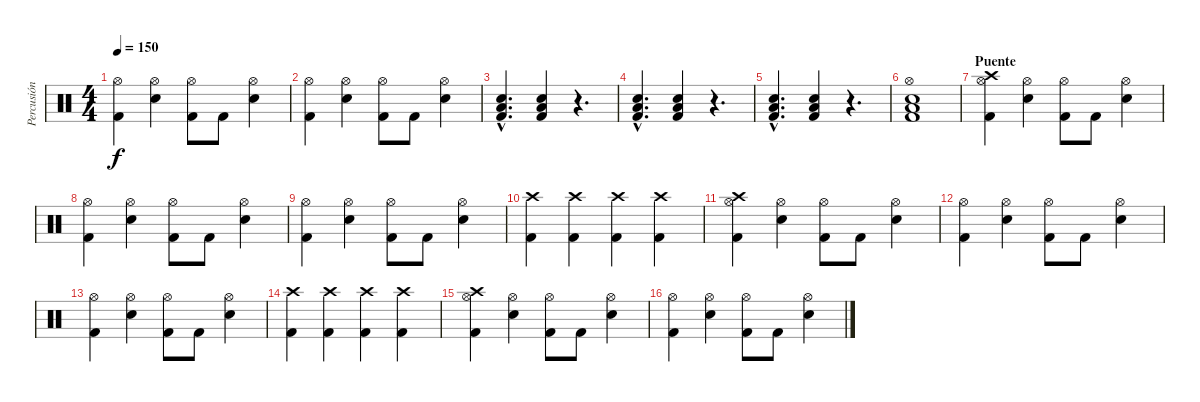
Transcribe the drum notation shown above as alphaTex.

\track ("Percusión" "Percusión") {instrument percussion}
\staff {score}
\articulation defaults
\ts (4 4)
\tempo 150
\clef neutral
\ks c
("Hi-Hat (open)" "Kick (hit) 2").4{dy f} ("Hi-Hat (open)" "Snare (hit) 2").4 ("Hi-Hat (open)" "Kick (hit) 2").8 "Kick (hit) 2".8 ("Hi-Hat (open)" "Snare (hit) 2").4 |
("Hi-Hat (open)" "Kick (hit) 2").4 ("Hi-Hat (open)" "Snare (hit) 2").4 ("Hi-Hat (open)" "Kick (hit) 2").8 "Kick (hit) 2".8 ("Hi-Hat (open)" "Snare (hit) 2").4 |
("Snare (hit) 2"{hac} "Low Floor Tom (hit)"{hac} "Kick (hit) 2"{hac}).4{d} ("Snare (hit) 2" "Low Floor Tom (hit)" "Kick (hit) 2").4 r.4{d} |
("Snare (hit) 2"{hac} "Low Floor Tom (hit)"{hac} "Kick (hit) 2"{hac}).4{d} ("Snare (hit) 2" "Low Floor Tom (hit)" "Kick (hit) 2").4 r.4{d} |
("Snare (hit) 2"{hac} "Low Floor Tom (hit)"{hac} "Kick (hit) 2"{hac}).4{d} ("Snare (hit) 2" "Low Floor Tom (hit)" "Kick (hit) 2").4 r.4{d} |
("Hi-Hat (open)" "Snare (hit) 2" "Low Floor Tom (hit)" "Kick (hit) 2").1 |
\section ("" "Puente")
("Crash high (hit)" "Hi-Hat (open)" "Kick (hit) 2").4 ("Hi-Hat (open)" "Snare (hit) 2").4 ("Hi-Hat (open)" "Kick (hit) 2").8 "Kick (hit) 2".8 ("Hi-Hat (open)" "Snare (hit) 2").4 |
("Hi-Hat (open)" "Kick (hit) 2").4 ("Hi-Hat (open)" "Snare (hit) 2").4 ("Hi-Hat (open)" "Kick (hit) 2").8 "Kick (hit) 2".8 ("Hi-Hat (open)" "Snare (hit) 2").4 |
("Hi-Hat (open)" "Kick (hit) 2").4 ("Hi-Hat (open)" "Snare (hit) 2").4 ("Hi-Hat (open)" "Kick (hit) 2").8 "Kick (hit) 2".8 ("Hi-Hat (open)" "Snare (hit) 2").4 |
("Crash high (hit)" "Kick (hit) 2").4 ("Crash high (hit)" "Kick (hit) 2").4 ("Crash high (hit)" "Kick (hit) 2").4 ("Crash high (hit)" "Kick (hit) 2").4 |
("Crash high (hit)" "Hi-Hat (open)" "Kick (hit) 2").4 ("Hi-Hat (open)" "Snare (hit) 2").4 ("Hi-Hat (open)" "Kick (hit) 2").8 "Kick (hit) 2".8 ("Hi-Hat (open)" "Snare (hit) 2").4 |
("Hi-Hat (open)" "Kick (hit) 2").4 ("Hi-Hat (open)" "Snare (hit) 2").4 ("Hi-Hat (open)" "Kick (hit) 2").8 "Kick (hit) 2".8 ("Hi-Hat (open)" "Snare (hit) 2").4 |
("Hi-Hat (open)" "Kick (hit) 2").4 ("Hi-Hat (open)" "Snare (hit) 2").4 ("Hi-Hat (open)" "Kick (hit) 2").8 "Kick (hit) 2".8 ("Hi-Hat (open)" "Snare (hit) 2").4 |
("Crash high (hit)" "Kick (hit) 2").4 ("Crash high (hit)" "Kick (hit) 2").4 ("Crash high (hit)" "Kick (hit) 2").4 ("Crash high (hit)" "Kick (hit) 2").4 |
("Crash high (hit)" "Hi-Hat (open)" "Kick (hit) 2").4 ("Hi-Hat (open)" "Snare (hit) 2").4 ("Hi-Hat (open)" "Kick (hit) 2").8 "Kick (hit) 2".8 ("Hi-Hat (open)" "Snare (hit) 2").4 |
("Hi-Hat (open)" "Kick (hit) 2").4 ("Hi-Hat (open)" "Snare (hit) 2").4 ("Hi-Hat (open)" "Kick (hit) 2").8 "Kick (hit) 2".8 ("Hi-Hat (open)" "Snare (hit) 2").4
